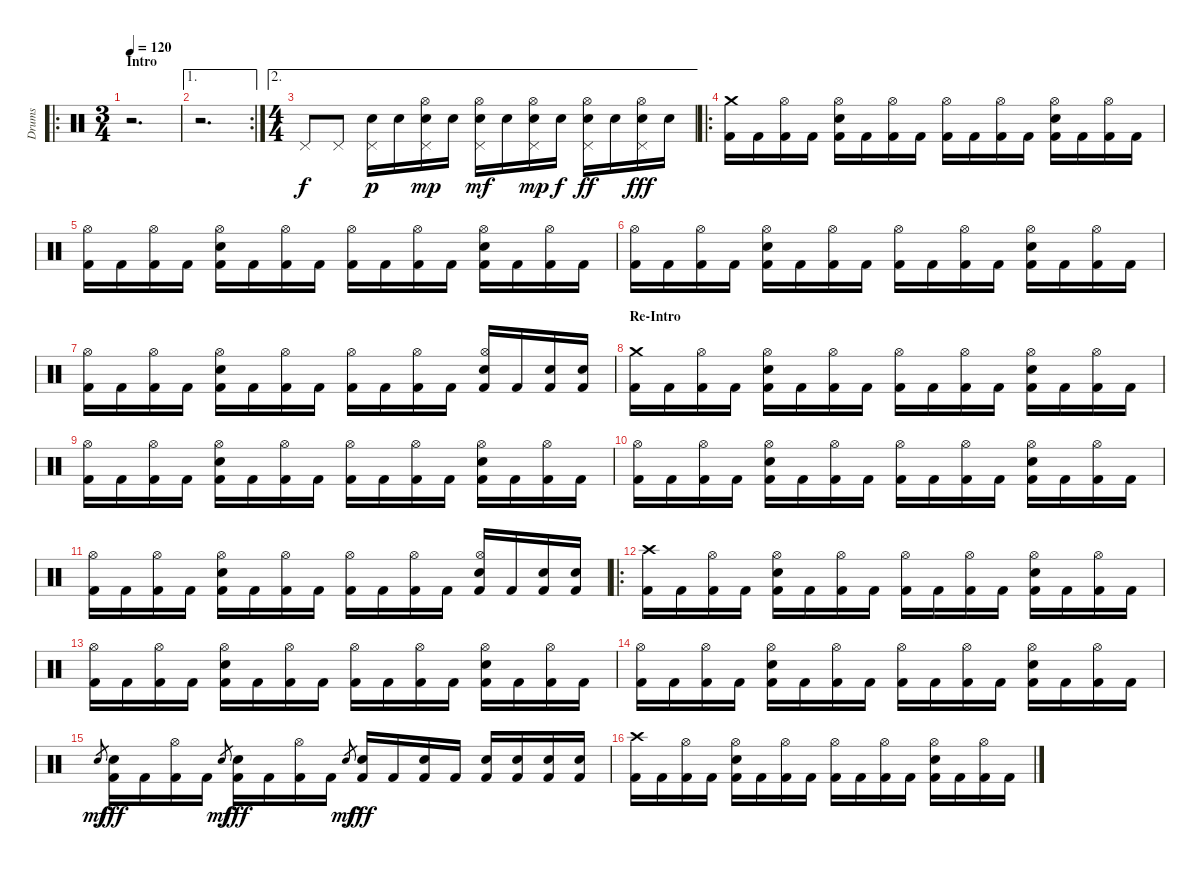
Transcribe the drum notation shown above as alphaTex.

\track ("Drums" "Drums") {instrument percussion}
\staff {score}
\articulation defaults
\ro
\ts (3 4)
\section ("" "Intro")
\tempo 120
\clef neutral
\ks c
r.2{d dy f} |
\ae 1
\rc 2
r.2{d} |
\ae 2
\ts (4 4)
"Pedal Hi-Hat (hit)".8 "Pedal Hi-Hat (hit)".8 ("Pedal Hi-Hat (hit)" "Electric Snare (hit)").16{dy p} "Electric Snare (hit)".16 ("Pedal Hi-Hat (hit)" "Hi-Hat (open)" "Electric Snare (hit)").16{dy mp} "Electric Snare (hit)".16 ("Pedal Hi-Hat (hit)" "Hi-Hat (open)" "Electric Snare (hit)").16{dy mf} "Electric Snare (hit)".16 ("Pedal Hi-Hat (hit)" "Hi-Hat (open)" "Electric Snare (hit)").16{dy mp} "Electric Snare (hit)".16{dy f} ("Pedal Hi-Hat (hit)" "Hi-Hat (open)" "Electric Snare (hit)").16{dy ff} "Electric Snare (hit)".16 ("Pedal Hi-Hat (hit)" "Hi-Hat (open)" "Electric Snare (hit)").16{dy fff} "Electric Snare (hit)".16 |
\ro
("Crash medium (hit)" "Kick (hit) 2").16 "Kick (hit) 2".16 ("Hi-Hat (open)" "Kick (hit) 2").16 "Kick (hit) 2".16 ("Hi-Hat (open)" "Electric Snare (hit)" "Kick (hit) 2").16 "Kick (hit) 2".16 ("Hi-Hat (open)" "Kick (hit) 2").16 "Kick (hit) 2".16 ("Hi-Hat (open)" "Kick (hit) 2").16 "Kick (hit) 2".16 ("Hi-Hat (open)" "Kick (hit) 2").16 "Kick (hit) 2".16 ("Hi-Hat (open)" "Electric Snare (hit)" "Kick (hit) 2").16 "Kick (hit) 2".16 ("Hi-Hat (open)" "Kick (hit) 2").16 "Kick (hit) 2".16 |
("Hi-Hat (open)" "Kick (hit) 2").16 "Kick (hit) 2".16 ("Hi-Hat (open)" "Kick (hit) 2").16 "Kick (hit) 2".16 ("Hi-Hat (open)" "Electric Snare (hit)" "Kick (hit) 2").16 "Kick (hit) 2".16 ("Hi-Hat (open)" "Kick (hit) 2").16 "Kick (hit) 2".16 ("Hi-Hat (open)" "Kick (hit) 2").16 "Kick (hit) 2".16 ("Hi-Hat (open)" "Kick (hit) 2").16 "Kick (hit) 2".16 ("Hi-Hat (open)" "Electric Snare (hit)" "Kick (hit) 2").16 "Kick (hit) 2".16 ("Hi-Hat (open)" "Kick (hit) 2").16 "Kick (hit) 2".16 |
("Hi-Hat (open)" "Kick (hit) 2").16 "Kick (hit) 2".16 ("Hi-Hat (open)" "Kick (hit) 2").16 "Kick (hit) 2".16 ("Hi-Hat (open)" "Electric Snare (hit)" "Kick (hit) 2").16 "Kick (hit) 2".16 ("Hi-Hat (open)" "Kick (hit) 2").16 "Kick (hit) 2".16 ("Hi-Hat (open)" "Kick (hit) 2").16 "Kick (hit) 2".16 ("Hi-Hat (open)" "Kick (hit) 2").16 "Kick (hit) 2".16 ("Hi-Hat (open)" "Electric Snare (hit)" "Kick (hit) 2").16 "Kick (hit) 2".16 ("Hi-Hat (open)" "Kick (hit) 2").16 "Kick (hit) 2".16 |
("Hi-Hat (open)" "Kick (hit) 2").16 "Kick (hit) 2".16 ("Hi-Hat (open)" "Kick (hit) 2").16 "Kick (hit) 2".16 ("Hi-Hat (open)" "Electric Snare (hit)" "Kick (hit) 2").16 "Kick (hit) 2".16 ("Hi-Hat (open)" "Kick (hit) 2").16 "Kick (hit) 2".16 ("Hi-Hat (open)" "Kick (hit) 2").16 "Kick (hit) 2".16 ("Hi-Hat (open)" "Kick (hit) 2").16 "Kick (hit) 2".16 ("Hi-Hat (open)" "Electric Snare (hit)" "Kick (hit) 2").16 "Kick (hit) 2".16 ("Electric Snare (hit)" "Kick (hit) 2").16 ("Electric Snare (hit)" "Kick (hit) 2").16 |
\section ("" "Re-Intro")
("Crash medium (hit)" "Kick (hit) 2").16 "Kick (hit) 2".16 ("Hi-Hat (open)" "Kick (hit) 2").16 "Kick (hit) 2".16 ("Hi-Hat (open)" "Electric Snare (hit)" "Kick (hit) 2").16 "Kick (hit) 2".16 ("Hi-Hat (open)" "Kick (hit) 2").16 "Kick (hit) 2".16 ("Hi-Hat (open)" "Kick (hit) 2").16 "Kick (hit) 2".16 ("Hi-Hat (open)" "Kick (hit) 2").16 "Kick (hit) 2".16 ("Hi-Hat (open)" "Electric Snare (hit)" "Kick (hit) 2").16 "Kick (hit) 2".16 ("Hi-Hat (open)" "Kick (hit) 2").16 "Kick (hit) 2".16 |
("Hi-Hat (open)" "Kick (hit) 2").16 "Kick (hit) 2".16 ("Hi-Hat (open)" "Kick (hit) 2").16 "Kick (hit) 2".16 ("Hi-Hat (open)" "Electric Snare (hit)" "Kick (hit) 2").16 "Kick (hit) 2".16 ("Hi-Hat (open)" "Kick (hit) 2").16 "Kick (hit) 2".16 ("Hi-Hat (open)" "Kick (hit) 2").16 "Kick (hit) 2".16 ("Hi-Hat (open)" "Kick (hit) 2").16 "Kick (hit) 2".16 ("Hi-Hat (open)" "Electric Snare (hit)" "Kick (hit) 2").16 "Kick (hit) 2".16 ("Hi-Hat (open)" "Kick (hit) 2").16 "Kick (hit) 2".16 |
("Hi-Hat (open)" "Kick (hit) 2").16 "Kick (hit) 2".16 ("Hi-Hat (open)" "Kick (hit) 2").16 "Kick (hit) 2".16 ("Hi-Hat (open)" "Electric Snare (hit)" "Kick (hit) 2").16 "Kick (hit) 2".16 ("Hi-Hat (open)" "Kick (hit) 2").16 "Kick (hit) 2".16 ("Hi-Hat (open)" "Kick (hit) 2").16 "Kick (hit) 2".16 ("Hi-Hat (open)" "Kick (hit) 2").16 "Kick (hit) 2".16 ("Hi-Hat (open)" "Electric Snare (hit)" "Kick (hit) 2").16 "Kick (hit) 2".16 ("Hi-Hat (open)" "Kick (hit) 2").16 "Kick (hit) 2".16 |
("Hi-Hat (open)" "Kick (hit) 2").16 "Kick (hit) 2".16 ("Hi-Hat (open)" "Kick (hit) 2").16 "Kick (hit) 2".16 ("Hi-Hat (open)" "Electric Snare (hit)" "Kick (hit) 2").16 "Kick (hit) 2".16 ("Hi-Hat (open)" "Kick (hit) 2").16 "Kick (hit) 2".16 ("Hi-Hat (open)" "Kick (hit) 2").16 "Kick (hit) 2".16 ("Hi-Hat (open)" "Kick (hit) 2").16 "Kick (hit) 2".16 ("Hi-Hat (open)" "Electric Snare (hit)" "Kick (hit) 2").16 "Kick (hit) 2".16 ("Electric Snare (hit)" "Kick (hit) 2").16 ("Electric Snare (hit)" "Kick (hit) 2").16 |
\ro
("Crash high (hit)" "Kick (hit) 2").16 "Kick (hit) 2".16 ("Hi-Hat (open)" "Kick (hit) 2").16 "Kick (hit) 2".16 ("Hi-Hat (open)" "Electric Snare (hit)" "Kick (hit) 2").16 "Kick (hit) 2".16 ("Hi-Hat (open)" "Kick (hit) 2").16 "Kick (hit) 2".16 ("Hi-Hat (open)" "Kick (hit) 2").16 "Kick (hit) 2".16 ("Hi-Hat (open)" "Kick (hit) 2").16 "Kick (hit) 2".16 ("Hi-Hat (open)" "Electric Snare (hit)" "Kick (hit) 2").16 "Kick (hit) 2".16 ("Hi-Hat (open)" "Kick (hit) 2").16 "Kick (hit) 2".16 |
("Hi-Hat (open)" "Kick (hit) 2").16 "Kick (hit) 2".16 ("Hi-Hat (open)" "Kick (hit) 2").16 "Kick (hit) 2".16 ("Hi-Hat (open)" "Electric Snare (hit)" "Kick (hit) 2").16 "Kick (hit) 2".16 ("Hi-Hat (open)" "Kick (hit) 2").16 "Kick (hit) 2".16 ("Hi-Hat (open)" "Kick (hit) 2").16 "Kick (hit) 2".16 ("Hi-Hat (open)" "Kick (hit) 2").16 "Kick (hit) 2".16 ("Hi-Hat (open)" "Electric Snare (hit)" "Kick (hit) 2").16 "Kick (hit) 2".16 ("Hi-Hat (open)" "Kick (hit) 2").16 "Kick (hit) 2".16 |
("Hi-Hat (open)" "Kick (hit) 2").16 "Kick (hit) 2".16 ("Hi-Hat (open)" "Kick (hit) 2").16 "Kick (hit) 2".16 ("Hi-Hat (open)" "Electric Snare (hit)" "Kick (hit) 2").16 "Kick (hit) 2".16 ("Hi-Hat (open)" "Kick (hit) 2").16 "Kick (hit) 2".16 ("Hi-Hat (open)" "Kick (hit) 2").16 "Kick (hit) 2".16 ("Hi-Hat (open)" "Kick (hit) 2").16 "Kick (hit) 2".16 ("Hi-Hat (open)" "Electric Snare (hit)" "Kick (hit) 2").16 "Kick (hit) 2".16 ("Hi-Hat (open)" "Kick (hit) 2").16 "Kick (hit) 2".16 |
"Electric Snare (hit)".8{gr dy mf} ("Electric Snare (hit)" "Kick (hit) 2").16{dy fff} "Kick (hit) 2".16 ("Hi-Hat (open)" "Kick (hit) 2").16 "Kick (hit) 2".16 "Electric Snare (hit)".8{gr dy mf} ("Electric Snare (hit)" "Kick (hit) 2").16{dy fff} "Kick (hit) 2".16 ("Hi-Hat (open)" "Kick (hit) 2").16 "Kick (hit) 2".16 "Electric Snare (hit)".8{gr dy mf} ("Electric Snare (hit)" "Kick (hit) 2").16{dy fff} "Kick (hit) 2".16 ("Electric Snare (hit)" "Kick (hit) 2").16 "Kick (hit) 2".16 ("Electric Snare (hit)" "Kick (hit) 2").16 ("Electric Snare (hit)" "Kick (hit) 2").16 ("Electric Snare (hit)" "Kick (hit) 2").16 ("Electric Snare (hit)" "Kick (hit) 2").16 |
("Crash high (hit)" "Kick (hit) 2").16 "Kick (hit) 2".16 ("Hi-Hat (open)" "Kick (hit) 2").16 "Kick (hit) 2".16 ("Hi-Hat (open)" "Electric Snare (hit)" "Kick (hit) 2").16 "Kick (hit) 2".16 ("Hi-Hat (open)" "Kick (hit) 2").16 "Kick (hit) 2".16 ("Hi-Hat (open)" "Kick (hit) 2").16 "Kick (hit) 2".16 ("Hi-Hat (open)" "Kick (hit) 2").16 "Kick (hit) 2".16 ("Hi-Hat (open)" "Electric Snare (hit)" "Kick (hit) 2").16 "Kick (hit) 2".16 ("Hi-Hat (open)" "Kick (hit) 2").16 "Kick (hit) 2".16
